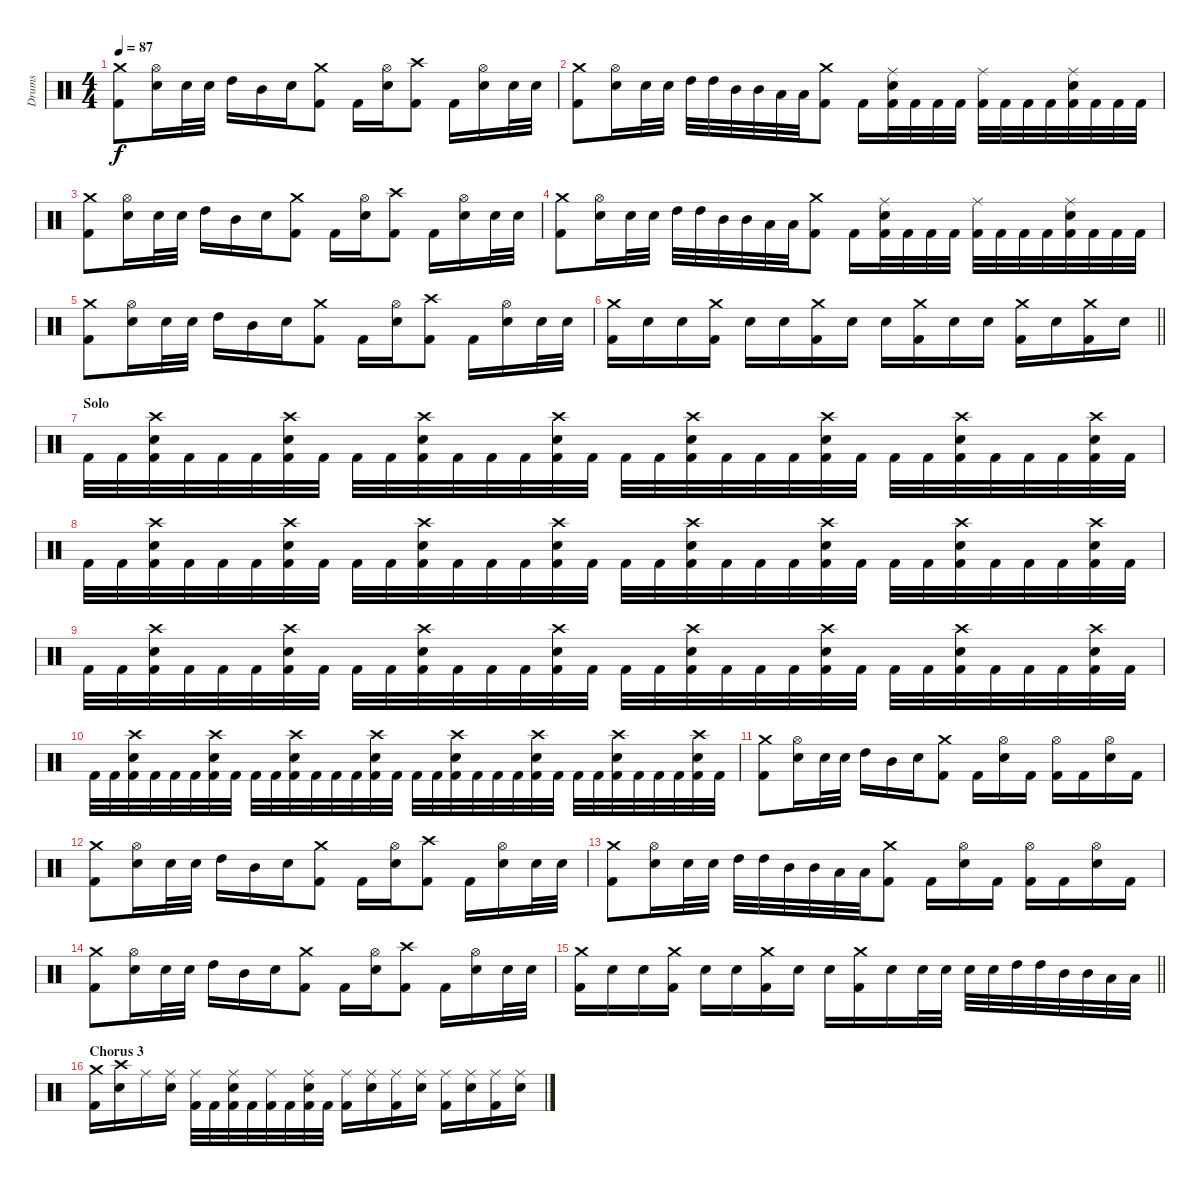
\track ("Drums" "Drums") {instrument percussion}
\staff {score}
\articulation defaults
\ts (4 4)
\tempo 87
\clef neutral
\ks c
("Crash medium (hit)" "Kick (hit) 2").8{dy f} ("Hi-Hat (open)" "Electric Snare (hit)").16 "Electric Snare (hit)".32 "Electric Snare (hit)".32 "High Tom (hit)".16 "Mid Tom (hit)".16 "Electric Snare (hit)".16 ("Crash medium (hit)" "Kick (hit) 2").8 "Kick (hit) 2".16 ("Hi-Hat (open)" "Electric Snare (hit)").16 ("Crash high (hit)" "Kick (hit) 2").8 "Kick (hit) 2".16 ("Hi-Hat (open)" "Electric Snare (hit)").16 "Electric Snare (hit)".32 "Electric Snare (hit)".32 |
("Crash medium (hit)" "Kick (hit) 2").8 ("Hi-Hat (open)" "Electric Snare (hit)").16 "Electric Snare (hit)".32 "Electric Snare (hit)".32 "High Tom (hit)".32 "High Tom (hit)".32 "Mid Tom (hit)".32 "Mid Tom (hit)".32 "Low Tom (hit)".32 "Low Tom (hit)".32 ("Crash medium (hit)" "Kick (hit) 2").8 "Kick (hit) 2".16 ("Ride (middle)" "Electric Snare (hit)" "Kick (hit) 2").32 "Kick (hit) 2".32 "Kick (hit) 2".32 "Kick (hit) 2".32 ("Ride (middle)" "Kick (hit) 2").32 "Kick (hit) 2".32 "Kick (hit) 2".32 "Kick (hit) 2".32 ("Ride (middle)" "Electric Snare (hit)" "Kick (hit) 2").32 "Kick (hit) 2".32 "Kick (hit) 2".32 "Kick (hit) 2".32 |
("Crash medium (hit)" "Kick (hit) 2").8 ("Hi-Hat (open)" "Electric Snare (hit)").16 "Electric Snare (hit)".32 "Electric Snare (hit)".32 "High Tom (hit)".16 "Mid Tom (hit)".16 "Electric Snare (hit)".16 ("Crash medium (hit)" "Kick (hit) 2").8 "Kick (hit) 2".16 ("Hi-Hat (open)" "Electric Snare (hit)").16 ("Crash high (hit)" "Kick (hit) 2").8 "Kick (hit) 2".16 ("Hi-Hat (open)" "Electric Snare (hit)").16 "Electric Snare (hit)".32 "Electric Snare (hit)".32 |
("Crash medium (hit)" "Kick (hit) 2").8 ("Hi-Hat (open)" "Electric Snare (hit)").16 "Electric Snare (hit)".32 "Electric Snare (hit)".32 "High Tom (hit)".32 "High Tom (hit)".32 "Mid Tom (hit)".32 "Mid Tom (hit)".32 "Low Tom (hit)".32 "Low Tom (hit)".32 ("Crash medium (hit)" "Kick (hit) 2").8 "Kick (hit) 2".16 ("Ride (middle)" "Electric Snare (hit)" "Kick (hit) 2").32 "Kick (hit) 2".32 "Kick (hit) 2".32 "Kick (hit) 2".32 ("Ride (middle)" "Kick (hit) 2").32 "Kick (hit) 2".32 "Kick (hit) 2".32 "Kick (hit) 2".32 ("Ride (middle)" "Electric Snare (hit)" "Kick (hit) 2").32 "Kick (hit) 2".32 "Kick (hit) 2".32 "Kick (hit) 2".32 |
("Crash medium (hit)" "Kick (hit) 2").8 ("Hi-Hat (open)" "Electric Snare (hit)").16 "Electric Snare (hit)".32 "Electric Snare (hit)".32 "High Tom (hit)".16 "Mid Tom (hit)".16 "Electric Snare (hit)".16 ("Crash medium (hit)" "Kick (hit) 2").8 "Kick (hit) 2".16 ("Hi-Hat (open)" "Electric Snare (hit)").16 ("Crash high (hit)" "Kick (hit) 2").8 "Kick (hit) 2".16 ("Hi-Hat (open)" "Electric Snare (hit)").16 "Electric Snare (hit)".32 "Electric Snare (hit)".32 |
\barLineRight lightlight
("Crash medium (hit)" "Kick (hit) 2").16 "Electric Snare (hit)".16 "Electric Snare (hit)".16 ("Crash medium (hit)" "Kick (hit) 2").16 "Electric Snare (hit)".16 "Electric Snare (hit)".16 ("Crash medium (hit)" "Kick (hit) 2").16 "Electric Snare (hit)".16 "Electric Snare (hit)".16 ("Crash medium (hit)" "Kick (hit) 2").16 "Electric Snare (hit)".16 "Electric Snare (hit)".16 ("Crash medium (hit)" "Kick (hit) 2").16 "Electric Snare (hit)".16 ("Crash medium (hit)" "Kick (hit) 2").16 "Electric Snare (hit)".16 |
\section ("" "Solo")
"Kick (hit) 2".32 "Kick (hit) 2".32 ("Crash high (hit)" "Electric Snare (hit)" "Kick (hit) 2").32 "Kick (hit) 2".32 "Kick (hit) 2".32 "Kick (hit) 2".32 ("Crash high (hit)" "Electric Snare (hit)" "Kick (hit) 2").32 "Kick (hit) 2".32 "Kick (hit) 2".32 "Kick (hit) 2".32 ("Crash high (hit)" "Electric Snare (hit)" "Kick (hit) 2").32 "Kick (hit) 2".32 "Kick (hit) 2".32 "Kick (hit) 2".32 ("Crash high (hit)" "Electric Snare (hit)" "Kick (hit) 2").32 "Kick (hit) 2".32 "Kick (hit) 2".32 "Kick (hit) 2".32 ("Crash high (hit)" "Electric Snare (hit)" "Kick (hit) 2").32 "Kick (hit) 2".32 "Kick (hit) 2".32 "Kick (hit) 2".32 ("Crash high (hit)" "Electric Snare (hit)" "Kick (hit) 2").32 "Kick (hit) 2".32 "Kick (hit) 2".32 "Kick (hit) 2".32 ("Crash high (hit)" "Electric Snare (hit)" "Kick (hit) 2").32 "Kick (hit) 2".32 "Kick (hit) 2".32 "Kick (hit) 2".32 ("Crash high (hit)" "Electric Snare (hit)" "Kick (hit) 2").32 "Kick (hit) 2".32 |
"Kick (hit) 2".32 "Kick (hit) 2".32 ("Crash high (hit)" "Electric Snare (hit)" "Kick (hit) 2").32 "Kick (hit) 2".32 "Kick (hit) 2".32 "Kick (hit) 2".32 ("Crash high (hit)" "Electric Snare (hit)" "Kick (hit) 2").32 "Kick (hit) 2".32 "Kick (hit) 2".32 "Kick (hit) 2".32 ("Crash high (hit)" "Electric Snare (hit)" "Kick (hit) 2").32 "Kick (hit) 2".32 "Kick (hit) 2".32 "Kick (hit) 2".32 ("Crash high (hit)" "Electric Snare (hit)" "Kick (hit) 2").32 "Kick (hit) 2".32 "Kick (hit) 2".32 "Kick (hit) 2".32 ("Crash high (hit)" "Electric Snare (hit)" "Kick (hit) 2").32 "Kick (hit) 2".32 "Kick (hit) 2".32 "Kick (hit) 2".32 ("Crash high (hit)" "Electric Snare (hit)" "Kick (hit) 2").32 "Kick (hit) 2".32 "Kick (hit) 2".32 "Kick (hit) 2".32 ("Crash high (hit)" "Electric Snare (hit)" "Kick (hit) 2").32 "Kick (hit) 2".32 "Kick (hit) 2".32 "Kick (hit) 2".32 ("Crash high (hit)" "Electric Snare (hit)" "Kick (hit) 2").32 "Kick (hit) 2".32 |
"Kick (hit) 2".32 "Kick (hit) 2".32 ("Crash high (hit)" "Electric Snare (hit)" "Kick (hit) 2").32 "Kick (hit) 2".32 "Kick (hit) 2".32 "Kick (hit) 2".32 ("Crash high (hit)" "Electric Snare (hit)" "Kick (hit) 2").32 "Kick (hit) 2".32 "Kick (hit) 2".32 "Kick (hit) 2".32 ("Crash high (hit)" "Electric Snare (hit)" "Kick (hit) 2").32 "Kick (hit) 2".32 "Kick (hit) 2".32 "Kick (hit) 2".32 ("Crash high (hit)" "Electric Snare (hit)" "Kick (hit) 2").32 "Kick (hit) 2".32 "Kick (hit) 2".32 "Kick (hit) 2".32 ("Crash high (hit)" "Electric Snare (hit)" "Kick (hit) 2").32 "Kick (hit) 2".32 "Kick (hit) 2".32 "Kick (hit) 2".32 ("Crash high (hit)" "Electric Snare (hit)" "Kick (hit) 2").32 "Kick (hit) 2".32 "Kick (hit) 2".32 "Kick (hit) 2".32 ("Crash high (hit)" "Electric Snare (hit)" "Kick (hit) 2").32 "Kick (hit) 2".32 "Kick (hit) 2".32 "Kick (hit) 2".32 ("Crash high (hit)" "Electric Snare (hit)" "Kick (hit) 2").32 "Kick (hit) 2".32 |
"Kick (hit) 2".32 "Kick (hit) 2".32 ("Crash high (hit)" "Electric Snare (hit)" "Kick (hit) 2").32 "Kick (hit) 2".32 "Kick (hit) 2".32 "Kick (hit) 2".32 ("Crash high (hit)" "Electric Snare (hit)" "Kick (hit) 2").32 "Kick (hit) 2".32 "Kick (hit) 2".32 "Kick (hit) 2".32 ("Crash high (hit)" "Electric Snare (hit)" "Kick (hit) 2").32 "Kick (hit) 2".32 "Kick (hit) 2".32 "Kick (hit) 2".32 ("Crash high (hit)" "Electric Snare (hit)" "Kick (hit) 2").32 "Kick (hit) 2".32 "Kick (hit) 2".32 "Kick (hit) 2".32 ("Crash high (hit)" "Electric Snare (hit)" "Kick (hit) 2").32 "Kick (hit) 2".32 "Kick (hit) 2".32 "Kick (hit) 2".32 ("Crash high (hit)" "Electric Snare (hit)" "Kick (hit) 2").32 "Kick (hit) 2".32 "Kick (hit) 2".32 "Kick (hit) 2".32 ("Crash high (hit)" "Electric Snare (hit)" "Kick (hit) 2").32 "Kick (hit) 2".32 "Kick (hit) 2".32 "Kick (hit) 2".32 ("Crash high (hit)" "Electric Snare (hit)" "Kick (hit) 2").32 "Kick (hit) 2".32 |
("Crash medium (hit)" "Kick (hit) 2").8 ("Hi-Hat (open)" "Electric Snare (hit)").16 "Electric Snare (hit)".32 "Electric Snare (hit)".32 "High Tom (hit)".16 "Mid Tom (hit)".16 "Electric Snare (hit)".16 ("Crash medium (hit)" "Kick (hit) 2").8 "Kick (hit) 2".16 ("Hi-Hat (open)" "Electric Snare (hit)").16 "Kick (hit) 2".16 ("Hi-Hat (open)" "Kick (hit) 2").16 "Kick (hit) 2".16 ("Hi-Hat (open)" "Electric Snare (hit)").16 "Kick (hit) 2".16 |
("Crash medium (hit)" "Kick (hit) 2").8 ("Hi-Hat (open)" "Electric Snare (hit)").16 "Electric Snare (hit)".32 "Electric Snare (hit)".32 "High Tom (hit)".16 "Mid Tom (hit)".16 "Electric Snare (hit)".16 ("Crash medium (hit)" "Kick (hit) 2").8 "Kick (hit) 2".16 ("Hi-Hat (open)" "Electric Snare (hit)").16 ("Crash high (hit)" "Kick (hit) 2").8 "Kick (hit) 2".16 ("Hi-Hat (open)" "Electric Snare (hit)").16 "Electric Snare (hit)".32 "Electric Snare (hit)".32 |
("Crash medium (hit)" "Kick (hit) 2").8 ("Hi-Hat (open)" "Electric Snare (hit)").16 "Electric Snare (hit)".32 "Electric Snare (hit)".32 "High Tom (hit)".32 "High Tom (hit)".32 "Mid Tom (hit)".32 "Mid Tom (hit)".32 "Low Tom (hit)".32 "Low Tom (hit)".32 ("Crash medium (hit)" "Kick (hit) 2").8 "Kick (hit) 2".16 ("Hi-Hat (open)" "Electric Snare (hit)").16 "Kick (hit) 2".16 ("Hi-Hat (open)" "Kick (hit) 2").16 "Kick (hit) 2".16 ("Hi-Hat (open)" "Electric Snare (hit)").16 "Kick (hit) 2".16 |
("Crash medium (hit)" "Kick (hit) 2").8 ("Hi-Hat (open)" "Electric Snare (hit)").16 "Electric Snare (hit)".32 "Electric Snare (hit)".32 "High Tom (hit)".16 "Mid Tom (hit)".16 "Electric Snare (hit)".16 ("Crash medium (hit)" "Kick (hit) 2").8 "Kick (hit) 2".16 ("Hi-Hat (open)" "Electric Snare (hit)").16 ("Crash high (hit)" "Kick (hit) 2").8 "Kick (hit) 2".16 ("Hi-Hat (open)" "Electric Snare (hit)").16 "Electric Snare (hit)".32 "Electric Snare (hit)".32 |
\barLineRight lightlight
("Crash medium (hit)" "Kick (hit) 2").16 "Electric Snare (hit)".16 "Electric Snare (hit)".16 ("Crash medium (hit)" "Kick (hit) 2").16 "Electric Snare (hit)".16 "Electric Snare (hit)".16 ("Crash medium (hit)" "Kick (hit) 2").16 "Electric Snare (hit)".16 "Electric Snare (hit)".16 ("Crash medium (hit)" "Kick (hit) 2").16 "Electric Snare (hit)".16 "Electric Snare (hit)".32 "Electric Snare (hit)".32 "Electric Snare (hit)".32 "Electric Snare (hit)".32 "High Tom (hit)".32 "High Tom (hit)".32 "Mid Tom (hit)".32 "Mid Tom (hit)".32 "Low Tom (hit)".32 "Low Tom (hit)".32 |
\section ("" "Chorus 3")
("Crash medium (hit)" "Kick (hit) 2").16 ("Crash high (hit)" "Electric Snare (hit)").16 "Ride (middle)".16 ("Ride (middle)" "Electric Snare (hit)").16 ("Ride (middle)" "Kick (hit) 2").32 "Kick (hit) 2".32 ("Ride (middle)" "Electric Snare (hit)" "Kick (hit) 2").32 "Kick (hit) 2".32 ("Ride (middle)" "Kick (hit) 2").32 "Kick (hit) 2".32 ("Ride (middle)" "Electric Snare (hit)" "Kick (hit) 2").32 "Kick (hit) 2".32 ("Ride (middle)" "Kick (hit) 2").16 ("Ride (middle)" "Electric Snare (hit)").16 ("Ride (middle)" "Kick (hit) 2").16 ("Ride (middle)" "Electric Snare (hit)").16 ("Ride (middle)" "Kick (hit) 2").16 ("Ride (middle)" "Electric Snare (hit)").16 ("Ride (middle)" "Kick (hit) 2").16 ("Ride (middle)" "Electric Snare (hit)").16
